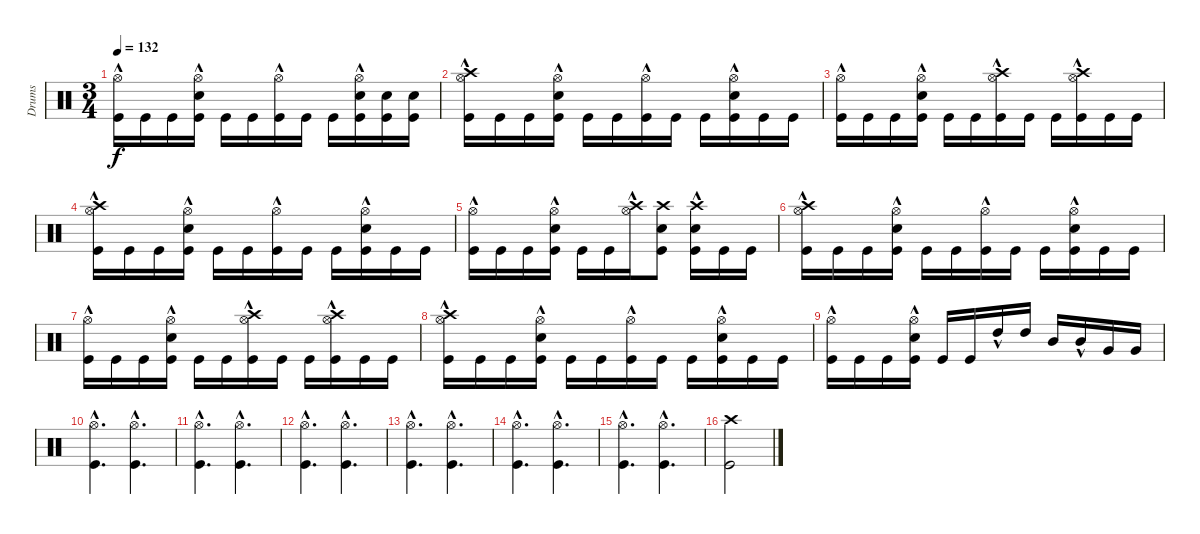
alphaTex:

\track ("Drums" "Drums") {instrument percussion}
\staff {score}
\articulation defaults
\ts (3 4)
\tempo 132
\clef neutral
\ks c
("Hi-Hat (open)"{hac} "Kick (hit)").16{dy f} "Kick (hit)".16 "Kick (hit)".16 ("Hi-Hat (open)"{hac} "Kick (hit)" "Electric Snare (hit)").16 "Kick (hit)".16 "Kick (hit)".16 ("Hi-Hat (open)"{hac} "Kick (hit)").16 "Kick (hit)".16 "Kick (hit)".16 ("Hi-Hat (open)"{hac} "Kick (hit)" "Electric Snare (hit)").16 ("Kick (hit)" "Electric Snare (hit)").16 ("Kick (hit)" "Electric Snare (hit)").16 |
("Hi-Hat (open)"{hac} "Kick (hit)" "Crash high (hit)").16 "Kick (hit)".16 "Kick (hit)".16 ("Hi-Hat (open)"{hac} "Kick (hit)" "Electric Snare (hit)").16 "Kick (hit)".16 "Kick (hit)".16 ("Hi-Hat (open)"{hac} "Kick (hit)").16 "Kick (hit)".16 "Kick (hit)".16 ("Hi-Hat (open)"{hac} "Kick (hit)" "Electric Snare (hit)").16 "Kick (hit)".16 "Kick (hit)".16 |
("Hi-Hat (open)"{hac} "Kick (hit)").16 "Kick (hit)".16 "Kick (hit)".16 ("Hi-Hat (open)"{hac} "Kick (hit)" "Electric Snare (hit)").16 "Kick (hit)".16 "Kick (hit)".16 ("Hi-Hat (open)"{hac} "Kick (hit)" "Crash high (hit)").16 "Kick (hit)".16 "Kick (hit)".16 ("Hi-Hat (open)"{hac} "Kick (hit)" "Crash high (hit)").16 "Kick (hit)".16 "Kick (hit)".16 |
("Hi-Hat (open)"{hac} "Kick (hit)" "Crash high (hit)").16 "Kick (hit)".16 "Kick (hit)".16 ("Hi-Hat (open)"{hac} "Kick (hit)" "Electric Snare (hit)").16 "Kick (hit)".16 "Kick (hit)".16 ("Hi-Hat (open)"{hac} "Kick (hit)").16 "Kick (hit)".16 "Kick (hit)".16 ("Hi-Hat (open)"{hac} "Kick (hit)" "Electric Snare (hit)").16 "Kick (hit)".16 "Kick (hit)".16 |
("Hi-Hat (open)"{hac} "Kick (hit)").16 "Kick (hit)".16 "Kick (hit)".16 ("Hi-Hat (open)"{hac} "Kick (hit)" "Electric Snare (hit)").16 "Kick (hit)".16 "Kick (hit)".16 ("Hi-Hat (open)"{hac} "Crash high (hit)").16 ("Kick (hit)" "Electric Snare (hit)" "Crash high (hit)").8 ("Electric Snare (hit)"{hac} "Kick (hit)" "Crash high (hit)").16 "Kick (hit)".16 "Kick (hit)".16 |
("Hi-Hat (open)"{hac} "Kick (hit)" "Crash high (hit)").16 "Kick (hit)".16 "Kick (hit)".16 ("Hi-Hat (open)"{hac} "Kick (hit)" "Electric Snare (hit)").16 "Kick (hit)".16 "Kick (hit)".16 ("Hi-Hat (open)"{hac} "Kick (hit)").16 "Kick (hit)".16 "Kick (hit)".16 ("Hi-Hat (open)"{hac} "Kick (hit)" "Electric Snare (hit)").16 "Kick (hit)".16 "Kick (hit)".16 |
("Hi-Hat (open)"{hac} "Kick (hit)").16 "Kick (hit)".16 "Kick (hit)".16 ("Hi-Hat (open)"{hac} "Kick (hit)" "Electric Snare (hit)").16 "Kick (hit)".16 "Kick (hit)".16 ("Hi-Hat (open)"{hac} "Kick (hit)" "Crash high (hit)").16 "Kick (hit)".16 "Kick (hit)".16 ("Hi-Hat (open)"{hac} "Kick (hit)" "Crash high (hit)").16 "Kick (hit)".16 "Kick (hit)".16 |
("Hi-Hat (open)"{hac} "Kick (hit)" "Crash high (hit)").16 "Kick (hit)".16 "Kick (hit)".16 ("Hi-Hat (open)"{hac} "Kick (hit)" "Electric Snare (hit)").16 "Kick (hit)".16 "Kick (hit)".16 ("Hi-Hat (open)"{hac} "Kick (hit)").16 "Kick (hit)".16 "Kick (hit)".16 ("Hi-Hat (open)"{hac} "Kick (hit)" "Electric Snare (hit)").16 "Kick (hit)".16 "Kick (hit)".16 |
("Hi-Hat (open)"{hac} "Kick (hit)").16 "Kick (hit)".16 "Kick (hit)".16 ("Hi-Hat (open)"{hac} "Kick (hit)" "Electric Snare (hit)").16 "Kick (hit)".16 "Kick (hit)".16 "High Tom (hit)"{hac}.16 "High Tom (hit)".16 "Mid Tom (hit)".16 "Mid Tom (hit)"{hac}.16 "Very Low Tom (hit)".16 "Very Low Tom (hit)".16 |
("Kick (hit)"{hac} "Hi-Hat (open)"{hac}).4{d} ("Kick (hit)"{hac} "Hi-Hat (open)"{hac}).4{d} |
("Kick (hit)"{hac} "Hi-Hat (open)"{hac}).4{d} ("Kick (hit)"{hac} "Hi-Hat (open)"{hac}).4{d} |
("Kick (hit)"{hac} "Hi-Hat (open)"{hac}).4{d} ("Kick (hit)"{hac} "Hi-Hat (open)"{hac}).4{d} |
("Kick (hit)"{hac} "Hi-Hat (open)"{hac}).4{d} ("Kick (hit)"{hac} "Hi-Hat (open)"{hac}).4{d} |
("Kick (hit)"{hac} "Hi-Hat (open)"{hac}).4{d} ("Kick (hit)"{hac} "Hi-Hat (open)"{hac}).4{d} |
("Kick (hit)"{hac} "Hi-Hat (open)"{hac}).4{d} ("Kick (hit)"{hac} "Hi-Hat (open)"{hac}).4{d} |
("Crash high (hit)" "Kick (hit)").2
